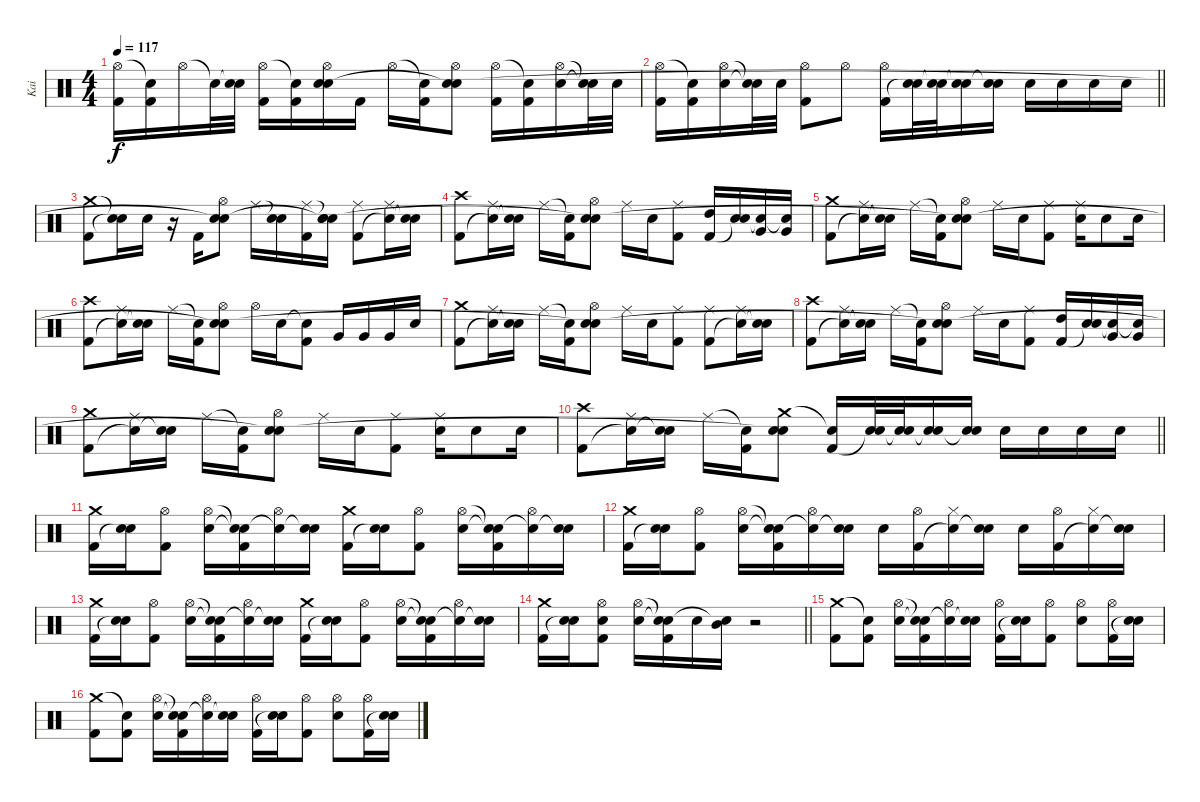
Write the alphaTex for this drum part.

\track ("Kai" "Kai") {instrument percussion}
\staff {score}
\articulation defaults
\ts (4 4)
\tempo 117
\clef neutral
\ks c
("Hi-Hat (open)" "Kick (hit) 2").16{dy f} ("Snare (hit)"{t} "Kick (hit) 2").16 "Hi-Hat (open)".16 "Snare (hit)"{t}.32 ("Snare (hit)"{t} "Snare (hit) 2").32 ("Hi-Hat (open)" "Kick (hit) 2").16 ("Snare (hit)"{t} "Kick (hit) 2").16 ("Hi-Hat (open)" "Snare (hit) 2" "Snare (hit)").16 "Kick (hit) 2".16 "Hi-Hat (open)".16 ("Snare (hit)"{t} "Kick (hit) 2").16 ("Hi-Hat (open)" "Snare (hit) 2" "Snare (hit)"{t}).8 ("Hi-Hat (open)" "Kick (hit) 2").16 ("Snare (hit)"{t} "Kick (hit) 2").16 ("Hi-Hat (open)" "Snare (hit) 2").16 ("Snare (hit)"{t} "Snare (hit)"{t}).32 "Snare (hit) 2".32 |
\barLineRight lightlight
("Hi-Hat (open)" "Kick (hit) 2").16 ("Snare (hit)"{t} "Kick (hit) 2").16 ("Hi-Hat (open)" "Snare (hit) 2").16 ("Snare (hit)"{t} "Snare (hit)"{t}).32 "Snare (hit) 2".32 ("Hi-Hat (open)" "Kick (hit) 2").8 "Hi-Hat (open)".8 ("Hi-Hat (open)" "Kick (hit) 2").16 ("Snare (hit) 2" "Snare (hit)"{t}).32 ("Snare (hit) 2" "Snare (hit)"{t}).32 ("Snare (hit) 2" "Snare (hit)"{t}).16 ("Snare (hit) 2" "Snare (hit)"{t}).16 "Snare (hit) 2".16 "Snare (hit) 2".16 "Snare (hit) 2".16 "Snare (hit) 2".16 |
("Crash medium (hit)" "Kick (hit) 2").8 ("Snare (hit)"{t} "Snare (hit)"{t}).16 "Snare (hit) 2".16 r.16 "Kick (hit) 2".16 ("Hi-Hat (open)" "Snare (hit) 2" "Snare (hit)"{t}).8 "Ride (middle)".16 ("Snare (hit)"{t} "Snare (hit) 2").16 ("Ride (middle)" "Kick (hit) 2").16 ("Snare (hit)"{t} "Snare (hit) 2" "Snare (hit)"{t}).16 ("Ride (middle)" "Kick (hit) 2").8 ("Ride (middle)" "Snare (hit)"{t}).16 ("Snare (hit) 2" "Snare (hit)"{t}).16 |
("Crash high (hit)" "Kick (hit) 2").8 ("Ride (middle)" "Snare (hit)"{t}).16 ("Snare (hit) 2" "Snare (hit)"{t}).16 "Ride (middle)".16 ("Snare (hit)"{t} "Kick (hit) 2").16 ("Hi-Hat (open)" "Snare (hit) 2" "Snare (hit)"{t}).8 "Ride (middle)".16 "Snare (hit) 2".16 ("Ride (middle)" "Kick (hit) 2").8 ("High Tom (hit)" "Kick (hit) 2").16 ("Snare (hit) 2" "Snare (hit)"{t}).16 ("Very Low Tom (hit)" "Snare (hit)"{t}).16 ("Very Low Tom (hit)" "Snare (hit)"{t}).16 |
("Crash medium (hit)" "Kick (hit) 2").8 ("Ride (middle)" "Snare (hit)"{t}).16 ("Snare (hit) 2" "Snare (hit)"{t}).16 "Ride (middle)".16 ("Snare (hit)"{t} "Kick (hit) 2").16 ("Hi-Hat (open)" "Snare (hit) 2" "Snare (hit)"{t}).8 "Ride (middle)".16 "Snare (hit) 2".16 ("Ride (middle)" "Kick (hit) 2").8 ("Ride (middle)" "Snare (hit) 2").16 "Snare (hit) 2".8 "Snare (hit) 2".16 |
("Crash high (hit)" "Kick (hit) 2").8 ("Ride (middle)" "Snare (hit)"{t}).16 ("Snare (hit) 2" "Snare (hit)"{t}).16 "Ride (middle)".16 ("Snare (hit)"{t} "Kick (hit) 2").16 ("Hi-Hat (open)" "Snare (hit) 2" "Snare (hit)"{t}).8 "Hi-Hat (open)".16 "Snare (hit) 2".16 ("Snare (hit)"{t} "Kick (hit) 2").8 "Very Low Tom (hit)".16 "Very Low Tom (hit)".16 "Very Low Tom (hit)".16 "Snare (hit) 2".16 |
("Crash medium (hit)" "Kick (hit) 2").8 ("Ride (middle)" "Snare (hit)"{t}).16 ("Snare (hit) 2" "Snare (hit)"{t}).16 "Ride (middle)".16 ("Snare (hit)"{t} "Kick (hit) 2").16 ("Hi-Hat (open)" "Snare (hit) 2" "Snare (hit)"{t}).8 "Ride (middle)".16 "Snare (hit) 2".16 ("Ride (middle)" "Kick (hit) 2").8 ("Ride (middle)" "Kick (hit) 2").8 ("Ride (middle)" "Snare (hit)"{t}).16 ("Snare (hit) 2" "Snare (hit)"{t}).16 |
("Crash high (hit)" "Kick (hit) 2").8 ("Ride (middle)" "Snare (hit)"{t}).16 ("Snare (hit) 2" "Snare (hit)"{t}).16 "Ride (middle)".16 ("Snare (hit)"{t} "Kick (hit) 2").16 ("Hi-Hat (open)" "Snare (hit) 2" "Snare (hit)"{t}).8 "Ride (middle)".16 "Snare (hit) 2".16 ("Ride (middle)" "Kick (hit) 2").8 ("High Tom (hit)" "Kick (hit) 2").16 ("Snare (hit) 2" "Snare (hit)"{t}).16 ("Very Low Tom (hit)" "Snare (hit)"{t}).16 ("Very Low Tom (hit)" "Snare (hit)"{t}).16 |
("Crash medium (hit)" "Kick (hit) 2").8 ("Ride (middle)" "Snare (hit)"{t}).16 ("Snare (hit) 2" "Snare (hit)"{t}).16 "Ride (middle)".16 ("Snare (hit)"{t} "Kick (hit) 2").16 ("Hi-Hat (open)" "Snare (hit) 2" "Snare (hit)"{t}).8 "Ride (middle)".16 "Snare (hit) 2".16 ("Ride (middle)" "Kick (hit) 2").8 ("Ride (middle)" "Snare (hit) 2").16 "Snare (hit) 2".8 "Snare (hit) 2".16 |
\barLineRight lightlight
("Crash high (hit)" "Kick (hit) 2").8 ("Ride (middle)" "Snare (hit)"{t}).16 ("Snare (hit) 2" "Snare (hit)"{t}).16 "Ride (middle)".16 ("Snare (hit)"{t} "Kick (hit) 2").16 ("Crash medium (hit)" "Snare (hit) 2" "Snare (hit)"{t}).8 ("Snare (hit)"{t} "Kick (hit) 2").16 ("Snare (hit) 2" "Snare (hit)"{t}).32 ("Snare (hit) 2" "Snare (hit)"{t}).32 ("Snare (hit) 2" "Snare (hit)"{t}).16 ("Snare (hit) 2" "Snare (hit)"{t}).16 "Snare (hit) 2".16 "Snare (hit) 2".16 "Snare (hit) 2".16 "Snare (hit) 2".16 |
("Crash medium (hit)" "Kick (hit) 2").16 ("Snare (hit) 2" "Snare (hit)"{t}).16 ("Hi-Hat (open)" "Kick (hit) 2").8 ("Hi-Hat (open)" "Snare (hit) 2").16 ("Snare (hit)"{t} "Snare (hit)"{t} "Kick (hit) 2").16 ("Hi-Hat (open)" "Snare (hit)"{t}).16 ("Snare (hit) 2" "Snare (hit)"{t}).16 ("Crash medium (hit)" "Kick (hit) 2").16 ("Snare (hit) 2" "Snare (hit)"{t}).16 ("Hi-Hat (open)" "Kick (hit) 2").8 ("Hi-Hat (open)" "Snare (hit) 2").16 ("Snare (hit)"{t} "Snare (hit)"{t} "Kick (hit) 2").16 ("Hi-Hat (open)" "Snare (hit)"{t}).16 ("Snare (hit) 2" "Snare (hit)"{t}).16 |
("Crash medium (hit)" "Kick (hit) 2").16 ("Snare (hit) 2" "Snare (hit)"{t}).16 ("Hi-Hat (open)" "Kick (hit) 2").8 ("Hi-Hat (open)" "Snare (hit) 2").16 ("Snare (hit)"{t} "Snare (hit)"{t} "Kick (hit) 2").16 ("Hi-Hat (open)" "Snare (hit)"{t}).16 ("Snare (hit) 2" "Snare (hit)"{t}).16 "Snare (hit) 2".16 ("Hi-Hat (open)" "Kick (hit) 2").16 ("Hi-Hat (closed)" "Snare (hit)"{t}).16 ("Snare (hit) 2" "Snare (hit)"{t}).16 "Snare (hit) 2".16 ("Hi-Hat (open)" "Kick (hit) 2").16 ("Hi-Hat (closed)" "Snare (hit)"{t}).16 ("Snare (hit) 2" "Snare (hit)"{t}).16 |
("Crash medium (hit)" "Kick (hit) 2").16 ("Snare (hit) 2" "Snare (hit)"{t}).16 ("Hi-Hat (open)" "Kick (hit) 2").8 ("Hi-Hat (open)" "Snare (hit) 2").16 ("Snare (hit)"{t} "Snare (hit)"{t} "Kick (hit) 2").16 ("Hi-Hat (open)" "Snare (hit)"{t}).16 ("Snare (hit) 2" "Snare (hit)"{t}).16 ("Crash medium (hit)" "Kick (hit) 2").16 ("Snare (hit) 2" "Snare (hit)"{t}).16 ("Hi-Hat (open)" "Kick (hit) 2").8 ("Hi-Hat (open)" "Snare (hit) 2").16 ("Snare (hit)"{t} "Snare (hit)"{t} "Kick (hit) 2").16 ("Hi-Hat (open)" "Snare (hit)"{t}).16 ("Snare (hit) 2" "Snare (hit)"{t}).16 |
\barLineRight lightlight
("Crash medium (hit)" "Kick (hit) 2").16 ("Snare (hit) 2" "Snare (hit)"{t}).16 ("Hi-Hat (open)" "Snare (hit) 2" "Kick (hit) 2").8 ("Hi-Hat (open)" "Snare (hit) 2").16 ("Snare (hit)"{t} "Snare (hit)"{t} "Kick (hit) 2").16 "Snare (hit) 2".16 ("Mid Tom (hit)" "Snare (hit)"{t}).16 r.2 |
("Crash medium (hit)" "Kick (hit) 2").8 ("Snare (hit)"{t} "Kick (hit) 2").8 ("Hi-Hat (open)" "Snare (hit) 2").16 ("Snare (hit)"{t} "Snare (hit)"{t} "Kick (hit) 2").16 ("Hi-Hat (open)" "Snare (hit)"{t}).16 ("Snare (hit) 2" "Snare (hit)"{t}).16 ("Hi-Hat (open)" "Kick (hit) 2").16 ("Snare (hit) 2" "Snare (hit)"{t}).16 ("Hi-Hat (open)" "Kick (hit) 2").8 ("Hi-Hat (open)" "Snare (hit) 2").8 ("Hi-Hat (open)" "Kick (hit) 2").16 ("Snare (hit) 2" "Snare (hit)"{t}).16 |
("Crash medium (hit)" "Kick (hit) 2").8 ("Snare (hit)"{t} "Kick (hit) 2").8 ("Hi-Hat (open)" "Snare (hit) 2").16 ("Snare (hit)"{t} "Snare (hit)"{t} "Kick (hit) 2").16 ("Hi-Hat (open)" "Snare (hit)"{t}).16 ("Snare (hit) 2" "Snare (hit)"{t}).16 ("Hi-Hat (open)" "Kick (hit) 2").16 ("Snare (hit) 2" "Snare (hit)"{t}).16 ("Hi-Hat (open)" "Kick (hit) 2").8 ("Hi-Hat (open)" "Snare (hit) 2").8 ("Hi-Hat (open)" "Kick (hit) 2").16 ("Snare (hit) 2" "Snare (hit)"{t}).16
